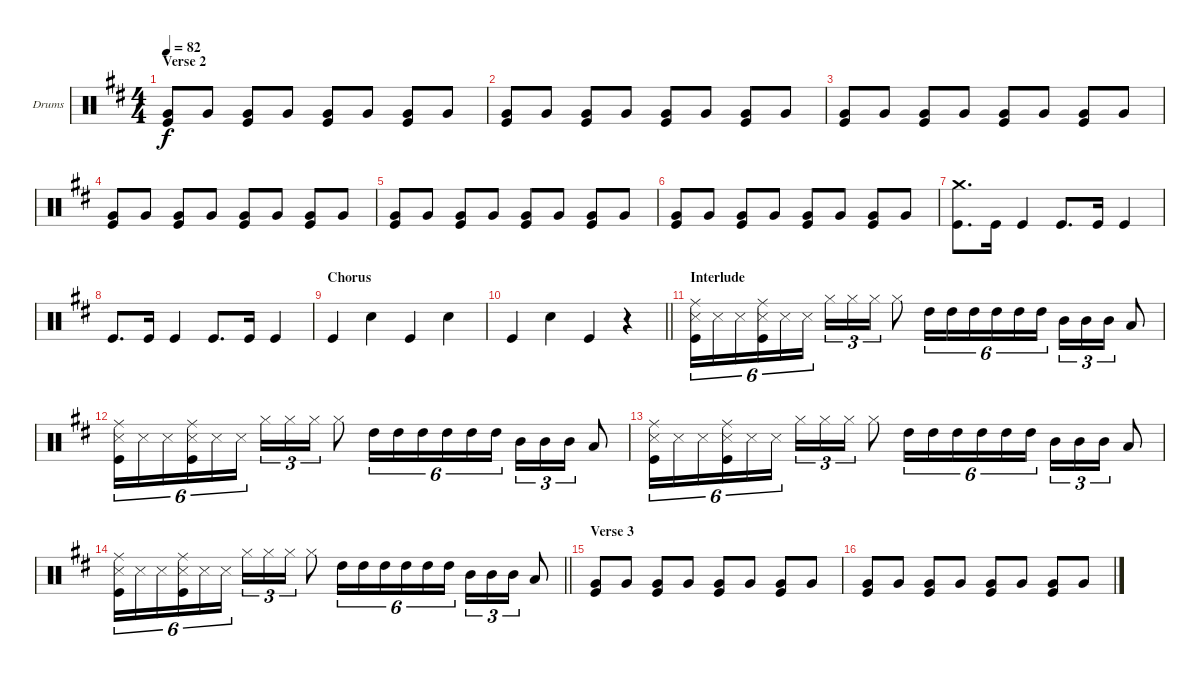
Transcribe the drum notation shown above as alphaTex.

\bracketExtendMode groupsimilarinstruments
\firstSystemTrackNameOrientation horizontal
\otherSystemsTrackNameOrientation horizontal
\track ("Drumkit" "Drums") {instrument percussion}
\staff {score}
\articulation defaults
\ts (4 4)
\section ("" "Verse 2")
\tempo 82
\clef neutral
\ks d
("Very Low Tom (hit)" "Kick (hit)").8{dy f} "Very Low Tom (hit)".8 ("Very Low Tom (hit)" "Kick (hit)").8 "Very Low Tom (hit)".8 ("Very Low Tom (hit)" "Kick (hit)").8 "Very Low Tom (hit)".8 ("Very Low Tom (hit)" "Kick (hit)").8 "Very Low Tom (hit)".8 |
("Very Low Tom (hit)" "Kick (hit)").8 "Very Low Tom (hit)".8 ("Very Low Tom (hit)" "Kick (hit)").8 "Very Low Tom (hit)".8 ("Very Low Tom (hit)" "Kick (hit)").8 "Very Low Tom (hit)".8 ("Very Low Tom (hit)" "Kick (hit)").8 "Very Low Tom (hit)".8 |
("Very Low Tom (hit)" "Kick (hit)").8 "Very Low Tom (hit)".8 ("Very Low Tom (hit)" "Kick (hit)").8 "Very Low Tom (hit)".8 ("Very Low Tom (hit)" "Kick (hit)").8 "Very Low Tom (hit)".8 ("Very Low Tom (hit)" "Kick (hit)").8 "Very Low Tom (hit)".8 |
("Very Low Tom (hit)" "Kick (hit)").8 "Very Low Tom (hit)".8 ("Very Low Tom (hit)" "Kick (hit)").8 "Very Low Tom (hit)".8 ("Very Low Tom (hit)" "Kick (hit)").8 "Very Low Tom (hit)".8 ("Very Low Tom (hit)" "Kick (hit)").8 "Very Low Tom (hit)".8 |
("Very Low Tom (hit)" "Kick (hit)").8 "Very Low Tom (hit)".8 ("Very Low Tom (hit)" "Kick (hit)").8 "Very Low Tom (hit)".8 ("Very Low Tom (hit)" "Kick (hit)").8 "Very Low Tom (hit)".8 ("Very Low Tom (hit)" "Kick (hit)").8 "Very Low Tom (hit)".8 |
("Very Low Tom (hit)" "Kick (hit)").8 "Very Low Tom (hit)".8 ("Very Low Tom (hit)" "Kick (hit)").8 "Very Low Tom (hit)".8 ("Very Low Tom (hit)" "Kick (hit)").8 "Very Low Tom (hit)".8 ("Very Low Tom (hit)" "Kick (hit)").8 "Very Low Tom (hit)".8 |
("Crash medium (hit)" "Kick (hit)").8{d} "Kick (hit)".16 "Kick (hit)".4 "Kick (hit)".8{d} "Kick (hit)".16 "Kick (hit)".4 |
"Kick (hit)".8{d} "Kick (hit)".16 "Kick (hit)".4 "Kick (hit)".8{d} "Kick (hit)".16 "Kick (hit)".4 |
\section ("" "Chorus")
"Kick (hit)".4 "Snare (hit) 2".4 "Kick (hit)".4 "Snare (hit) 2".4 |
\barLineRight lightlight "Kick (hit)".4 "Snare (hit) 2".4 "Kick (hit)".4
r.4 |
\section ("" "Interlude")
("Snare (side stick) 3" "Kick (hit)" "Ride (middle)").16{tu (6 4)} "Snare (side stick) 3".16{tu (6 4)} "Snare (side stick) 3".16{tu (6 4)} ("Snare (side stick) 3" "Kick (hit)" "Ride (middle)").16{tu (6 4)} "Snare (side stick) 3".16{tu (6 4)} "Snare (side stick) 3".16{tu (6 4)} "Hi-Hat (closed)".16{tu (3 2)} "Hi-Hat (closed)".16{tu (3 2)} "Hi-Hat (closed)".16{tu (3 2)} "Hi-Hat (closed)".8 "High Tom (hit)".16{tu (6 4)} "High Tom (hit)".16{tu (6 4)} "High Tom (hit)".16{tu (6 4)} "High Tom (hit)".16{tu (6 4)} "High Tom (hit)".16{tu (6 4)} "High Tom (hit)".16{tu (6 4)} "Mid Tom (hit)".16{tu (3 2)} "Mid Tom (hit)".16{tu (3 2)} "Mid Tom (hit)".16{tu (3 2)} "Low Tom (hit)".8 |
("Snare (side stick) 3" "Kick (hit)" "Ride (middle)").16{tu (6 4)} "Snare (side stick) 3".16{tu (6 4)} "Snare (side stick) 3".16{tu (6 4)} ("Snare (side stick) 3" "Kick (hit)" "Ride (middle)").16{tu (6 4)} "Snare (side stick) 3".16{tu (6 4)} "Snare (side stick) 3".16{tu (6 4)} "Hi-Hat (closed)".16{tu (3 2)} "Hi-Hat (closed)".16{tu (3 2)} "Hi-Hat (closed)".16{tu (3 2)} "Hi-Hat (closed)".8 "High Tom (hit)".16{tu (6 4)} "High Tom (hit)".16{tu (6 4)} "High Tom (hit)".16{tu (6 4)} "High Tom (hit)".16{tu (6 4)} "High Tom (hit)".16{tu (6 4)} "High Tom (hit)".16{tu (6 4)} "Mid Tom (hit)".16{tu (3 2)} "Mid Tom (hit)".16{tu (3 2)} "Mid Tom (hit)".16{tu (3 2)} "Low Tom (hit)".8 |
("Snare (side stick) 3" "Kick (hit)" "Ride (middle)").16{tu (6 4)} "Snare (side stick) 3".16{tu (6 4)} "Snare (side stick) 3".16{tu (6 4)} ("Snare (side stick) 3" "Kick (hit)" "Ride (middle)").16{tu (6 4)} "Snare (side stick) 3".16{tu (6 4)} "Snare (side stick) 3".16{tu (6 4)} "Hi-Hat (closed)".16{tu (3 2)} "Hi-Hat (closed)".16{tu (3 2)} "Hi-Hat (closed)".16{tu (3 2)} "Hi-Hat (closed)".8 "High Tom (hit)".16{tu (6 4)} "High Tom (hit)".16{tu (6 4)} "High Tom (hit)".16{tu (6 4)} "High Tom (hit)".16{tu (6 4)} "High Tom (hit)".16{tu (6 4)} "High Tom (hit)".16{tu (6 4)} "Mid Tom (hit)".16{tu (3 2)} "Mid Tom (hit)".16{tu (3 2)} "Mid Tom (hit)".16{tu (3 2)} "Low Tom (hit)".8 |
\barLineRight lightlight
("Snare (side stick) 3" "Kick (hit)" "Ride (middle)").16{tu (6 4)} "Snare (side stick) 3".16{tu (6 4)} "Snare (side stick) 3".16{tu (6 4)} ("Snare (side stick) 3" "Kick (hit)" "Ride (middle)").16{tu (6 4)} "Snare (side stick) 3".16{tu (6 4)} "Snare (side stick) 3".16{tu (6 4)} "Hi-Hat (closed)".16{tu (3 2)} "Hi-Hat (closed)".16{tu (3 2)} "Hi-Hat (closed)".16{tu (3 2)} "Hi-Hat (closed)".8 "High Tom (hit)".16{tu (6 4)} "High Tom (hit)".16{tu (6 4)} "High Tom (hit)".16{tu (6 4)} "High Tom (hit)".16{tu (6 4)} "High Tom (hit)".16{tu (6 4)} "High Tom (hit)".16{tu (6 4)} "Mid Tom (hit)".16{tu (3 2)} "Mid Tom (hit)".16{tu (3 2)} "Mid Tom (hit)".16{tu (3 2)} "Low Tom (hit)".8 |
\section ("" "Verse 3")
("Very Low Tom (hit)" "Kick (hit)").8 "Very Low Tom (hit)".8 ("Very Low Tom (hit)" "Kick (hit)").8 "Very Low Tom (hit)".8 ("Very Low Tom (hit)" "Kick (hit)").8 "Very Low Tom (hit)".8 ("Very Low Tom (hit)" "Kick (hit)").8 "Very Low Tom (hit)".8 |
("Very Low Tom (hit)" "Kick (hit)").8 "Very Low Tom (hit)".8 ("Very Low Tom (hit)" "Kick (hit)").8 "Very Low Tom (hit)".8 ("Very Low Tom (hit)" "Kick (hit)").8 "Very Low Tom (hit)".8 ("Very Low Tom (hit)" "Kick (hit)").8 "Very Low Tom (hit)".8
